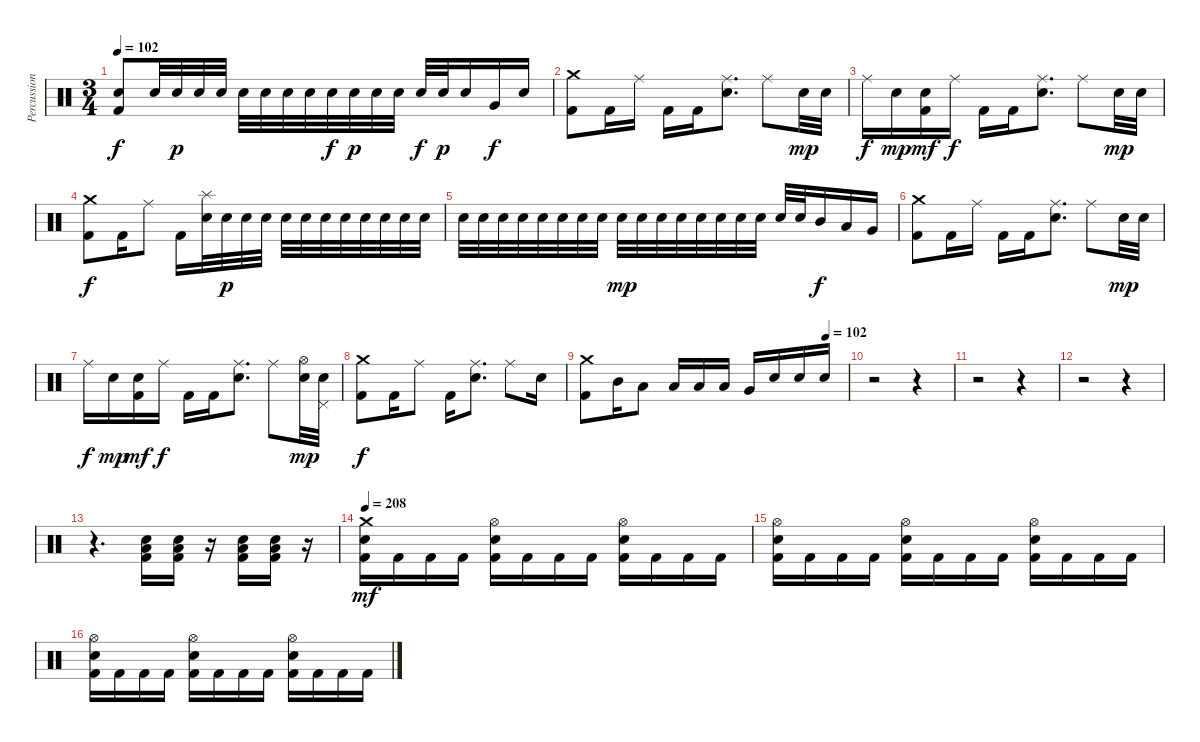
\track ("Percussion" "Percussion") {instrument percussion}
\staff {score}
\articulation defaults
\ts (3 4)
\tempo 102
\clef neutral
\ks c
("Electric Snare (hit)" "Kick (hit) 2").8{dy f} "Electric Snare (hit)".32 "Electric Snare (hit)".32{dy p} "Electric Snare (hit)".32 "Electric Snare (hit)".32 "Electric Snare (hit)".32 "Electric Snare (hit)".32 "Electric Snare (hit)".32 "Electric Snare (hit)".32 "Electric Snare (hit)".32{dy f} "Electric Snare (hit)".32{dy p} "Electric Snare (hit)".32 "Electric Snare (hit)".32 "Electric Snare (hit)".32{dy f} "Electric Snare (hit)".32{dy p} "Electric Snare (hit)".16 "Very Low Tom (hit)".16{dy f} "Electric Snare (hit)".16 |
("Crash medium (hit)" "Kick (hit) 2").8 "Kick (hit) 2".16 "Ride (middle)".16 "Kick (hit) 2".16 "Kick (hit) 2".16 ("Ride (middle)" "Electric Snare (hit)").8{d} "Ride (middle)".8 "Electric Snare (hit)".32{dy mp} "Electric Snare (hit)".32 |
"Ride (middle)".16{dy f} "Electric Snare (hit)".16{dy mp} ("Electric Snare (hit)" "Kick (hit) 2").16{dy mf} "Ride (middle)".16{dy f} "Kick (hit) 2".16 "Kick (hit) 2".16 ("Ride (middle)" "Electric Snare (hit)").8{d} "Ride (middle)".8 "Electric Snare (hit)".32{dy mp} "Electric Snare (hit)".32 |
("Crash medium (hit)" "Kick (hit) 2").8{dy f} "Kick (hit) 2".16 "Ride (middle)".8 "Kick (hit) 2".16 ("Splash (hit)" "Electric Snare (hit)").32 "Electric Snare (hit)".32{dy p} "Electric Snare (hit)".32 "Electric Snare (hit)".32 "Electric Snare (hit)".32 "Electric Snare (hit)".32 "Electric Snare (hit)".32 "Electric Snare (hit)".32 "Electric Snare (hit)".32 "Electric Snare (hit)".32 "Electric Snare (hit)".32 "Electric Snare (hit)".32 |
"Electric Snare (hit)".32 "Electric Snare (hit)".32 "Electric Snare (hit)".32 "Electric Snare (hit)".32 "Electric Snare (hit)".32 "Electric Snare (hit)".32 "Electric Snare (hit)".32 "Electric Snare (hit)".32 "Electric Snare (hit)".32{dy mp} "Electric Snare (hit)".32 "Electric Snare (hit)".32 "Electric Snare (hit)".32 "Electric Snare (hit)".32 "Electric Snare (hit)".32 "Electric Snare (hit)".32 "Electric Snare (hit)".32 "Electric Snare (hit)".32 "Electric Snare (hit)".32 "Mid Tom (hit)".16{dy f} "Low Tom (hit)".16 "Very Low Tom (hit)".16 |
("Crash medium (hit)" "Kick (hit) 2").8 "Kick (hit) 2".16 "Ride (middle)".16 "Kick (hit) 2".16 "Kick (hit) 2".16 ("Ride (middle)" "Electric Snare (hit)").8{d} "Ride (middle)".8 "Electric Snare (hit)".32{dy mp} "Electric Snare (hit)".32 |
"Ride (middle)".16{dy f} "Electric Snare (hit)".16{dy mp} ("Electric Snare (hit)" "Kick (hit) 2").16{dy mf} "Ride (middle)".16{dy f} "Kick (hit) 2".16 "Kick (hit) 2".16 ("Ride (middle)" "Electric Snare (hit)").8{d} "Ride (middle)".8 ("Hi-Hat (open)" "Electric Snare (hit)").32{dy mp} ("Pedal Hi-Hat (hit)" "Electric Snare (hit)").32 |
("Crash medium (hit)" "Kick (hit) 2").8{dy f} "Kick (hit) 2".16 "Ride (middle)".8 "Kick (hit) 2".16 ("Ride (middle)" "Electric Snare (hit)").8{d} "Ride (middle)".8 "Electric Snare (hit)".16 |
\tempo (102 0.9166666666666666)
("Crash medium (hit)" "Kick (hit) 2").8 "Mid Tom (hit)".16 "Low Tom (hit)".8 "Low Tom (hit)".16 "Low Tom (hit)".16 "Low Tom (hit)".16 "Very Low Tom (hit)".16 "Electric Snare (hit)".16 "Electric Snare (hit)".16 "Electric Snare (hit)".16 |
r.2 r.4 |
r.2 r.4 |
r.2 r.4 |
r.4{d} ("Low Floor Tom (hit)" "Electric Snare (hit)" "Kick (hit) 2").16 ("Low Floor Tom (hit)" "Electric Snare (hit)" "Kick (hit) 2").16 r.16 ("Low Floor Tom (hit)" "Electric Snare (hit)" "Kick (hit) 2").16 ("Low Floor Tom (hit)" "Electric Snare (hit)" "Kick (hit) 2").16 r.16 |
\tempo 208
("Crash medium (hit)" "Electric Snare (hit)" "Kick (hit) 2").16{dy mf} "Kick (hit) 2".16 "Kick (hit) 2".16 "Kick (hit) 2".16 ("Hi-Hat (open)" "Electric Snare (hit)" "Kick (hit) 2").16 "Kick (hit) 2".16 "Kick (hit) 2".16 "Kick (hit) 2".16 ("Hi-Hat (open)" "Electric Snare (hit)" "Kick (hit) 2").16 "Kick (hit) 2".16 "Kick (hit) 2".16 "Kick (hit) 2".16 |
("Hi-Hat (open)" "Electric Snare (hit)" "Kick (hit) 2").16 "Kick (hit) 2".16 "Kick (hit) 2".16 "Kick (hit) 2".16 ("Hi-Hat (open)" "Electric Snare (hit)" "Kick (hit) 2").16 "Kick (hit) 2".16 "Kick (hit) 2".16 "Kick (hit) 2".16 ("Hi-Hat (open)" "Electric Snare (hit)" "Kick (hit) 2").16 "Kick (hit) 2".16 "Kick (hit) 2".16 "Kick (hit) 2".16 |
("Hi-Hat (open)" "Electric Snare (hit)" "Kick (hit) 2").16 "Kick (hit) 2".16 "Kick (hit) 2".16 "Kick (hit) 2".16 ("Hi-Hat (open)" "Electric Snare (hit)" "Kick (hit) 2").16 "Kick (hit) 2".16 "Kick (hit) 2".16 "Kick (hit) 2".16 ("Hi-Hat (open)" "Electric Snare (hit)" "Kick (hit) 2").16 "Kick (hit) 2".16 "Kick (hit) 2".16 "Kick (hit) 2".16
